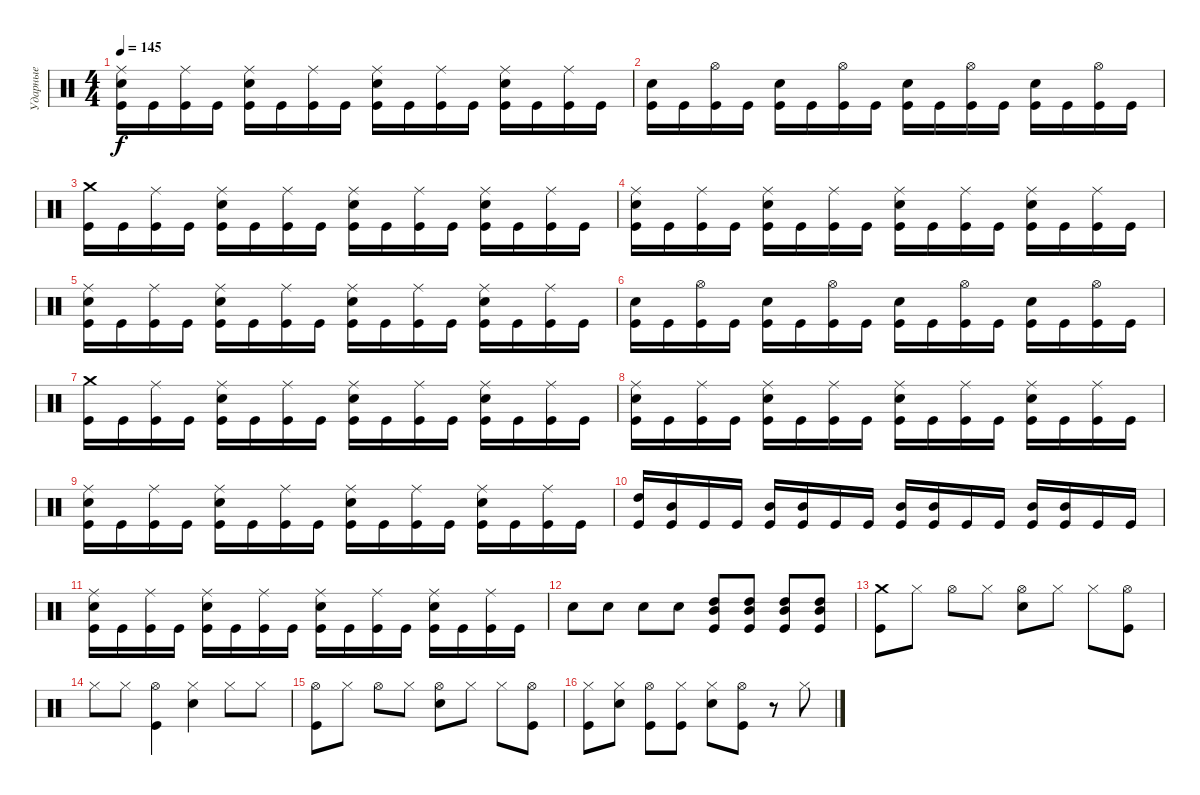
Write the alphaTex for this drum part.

\track ("Ударные" "Ударные") {instrument percussion}
\staff {score}
\articulation defaults
\ts (4 4)
\tempo 145
\clef neutral
\ks c
("Kick (hit)" "Snare (hit) 2" "Ride (middle)").16{dy f} "Kick (hit)".16 ("Kick (hit)" "Ride (middle)").16 "Kick (hit)".16 ("Kick (hit)" "Snare (hit) 2" "Ride (middle)").16 "Kick (hit)".16 ("Kick (hit)" "Ride (middle)").16 "Kick (hit)".16 ("Kick (hit)" "Snare (hit) 2" "Ride (middle)").16 "Kick (hit)".16 ("Kick (hit)" "Ride (middle)").16 "Kick (hit)".16 ("Kick (hit)" "Snare (hit) 2" "Ride (middle)").16 "Kick (hit)".16 ("Kick (hit)" "Ride (middle)").16 "Kick (hit)".16 |
("Kick (hit)" "Snare (hit) 2").16 "Kick (hit)".16 ("Kick (hit)" "Hi-Hat (open)").16 "Kick (hit)".16 ("Kick (hit)" "Snare (hit) 2").16 "Kick (hit)".16 ("Kick (hit)" "Hi-Hat (open)").16 "Kick (hit)".16 ("Kick (hit)" "Snare (hit) 2").16 "Kick (hit)".16 ("Kick (hit)" "Hi-Hat (open)").16 "Kick (hit)".16 ("Kick (hit)" "Snare (hit) 2").16 "Kick (hit)".16 ("Kick (hit)" "Hi-Hat (open)").16 "Kick (hit)".16 |
("Kick (hit)" "Crash medium (hit)").16 "Kick (hit)".16 ("Kick (hit)" "Ride (middle)").16 "Kick (hit)".16 ("Kick (hit)" "Snare (hit) 2" "Ride (middle)").16 "Kick (hit)".16 ("Kick (hit)" "Ride (middle)").16 "Kick (hit)".16 ("Kick (hit)" "Snare (hit) 2" "Ride (middle)").16 "Kick (hit)".16 ("Kick (hit)" "Ride (middle)").16 "Kick (hit)".16 ("Kick (hit)" "Snare (hit) 2" "Ride (middle)").16 "Kick (hit)".16 ("Kick (hit)" "Ride (middle)").16 "Kick (hit)".16 |
("Kick (hit)" "Snare (hit) 2" "Ride (middle)").16 "Kick (hit)".16 ("Kick (hit)" "Ride (middle)").16 "Kick (hit)".16 ("Kick (hit)" "Snare (hit) 2" "Ride (middle)").16 "Kick (hit)".16 ("Kick (hit)" "Ride (middle)").16 "Kick (hit)".16 ("Kick (hit)" "Snare (hit) 2" "Ride (middle)").16 "Kick (hit)".16 ("Kick (hit)" "Ride (middle)").16 "Kick (hit)".16 ("Kick (hit)" "Snare (hit) 2" "Ride (middle)").16 "Kick (hit)".16 ("Kick (hit)" "Ride (middle)").16 "Kick (hit)".16 |
("Kick (hit)" "Snare (hit) 2" "Ride (middle)").16 "Kick (hit)".16 ("Kick (hit)" "Ride (middle)").16 "Kick (hit)".16 ("Kick (hit)" "Snare (hit) 2" "Ride (middle)").16 "Kick (hit)".16 ("Kick (hit)" "Ride (middle)").16 "Kick (hit)".16 ("Kick (hit)" "Snare (hit) 2" "Ride (middle)").16 "Kick (hit)".16 ("Kick (hit)" "Ride (middle)").16 "Kick (hit)".16 ("Kick (hit)" "Snare (hit) 2" "Ride (middle)").16 "Kick (hit)".16 ("Kick (hit)" "Ride (middle)").16 "Kick (hit)".16 |
("Kick (hit)" "Snare (hit) 2").16 "Kick (hit)".16 ("Kick (hit)" "Hi-Hat (open)").16 "Kick (hit)".16 ("Kick (hit)" "Snare (hit) 2").16 "Kick (hit)".16 ("Kick (hit)" "Hi-Hat (open)").16 "Kick (hit)".16 ("Kick (hit)" "Snare (hit) 2").16 "Kick (hit)".16 ("Kick (hit)" "Hi-Hat (open)").16 "Kick (hit)".16 ("Kick (hit)" "Snare (hit) 2").16 "Kick (hit)".16 ("Kick (hit)" "Hi-Hat (open)").16 "Kick (hit)".16 |
("Kick (hit)" "Crash medium (hit)").16 "Kick (hit)".16 ("Kick (hit)" "Ride (middle)").16 "Kick (hit)".16 ("Kick (hit)" "Snare (hit) 2" "Ride (middle)").16 "Kick (hit)".16 ("Kick (hit)" "Ride (middle)").16 "Kick (hit)".16 ("Kick (hit)" "Snare (hit) 2" "Ride (middle)").16 "Kick (hit)".16 ("Kick (hit)" "Ride (middle)").16 "Kick (hit)".16 ("Kick (hit)" "Snare (hit) 2" "Ride (middle)").16 "Kick (hit)".16 ("Kick (hit)" "Ride (middle)").16 "Kick (hit)".16 |
("Kick (hit)" "Snare (hit) 2" "Ride (middle)").16 "Kick (hit)".16 ("Kick (hit)" "Ride (middle)").16 "Kick (hit)".16 ("Kick (hit)" "Snare (hit) 2" "Ride (middle)").16 "Kick (hit)".16 ("Kick (hit)" "Ride (middle)").16 "Kick (hit)".16 ("Kick (hit)" "Snare (hit) 2" "Ride (middle)").16 "Kick (hit)".16 ("Kick (hit)" "Ride (middle)").16 "Kick (hit)".16 ("Kick (hit)" "Snare (hit) 2" "Ride (middle)").16 "Kick (hit)".16 ("Kick (hit)" "Ride (middle)").16 "Kick (hit)".16 |
("Kick (hit)" "Snare (hit) 2" "Ride (middle)").16 "Kick (hit)".16 ("Kick (hit)" "Ride (middle)").16 "Kick (hit)".16 ("Kick (hit)" "Snare (hit) 2" "Ride (middle)").16 "Kick (hit)".16 ("Kick (hit)" "Ride (middle)").16 "Kick (hit)".16 ("Kick (hit)" "Snare (hit) 2" "Ride (middle)").16 "Kick (hit)".16 ("Kick (hit)" "Ride (middle)").16 "Kick (hit)".16 ("Kick (hit)" "Snare (hit) 2" "Ride (middle)").16 "Kick (hit)".16 ("Kick (hit)" "Ride (middle)").16 "Kick (hit)".16 |
("Kick (hit)" "High Tom (hit)").16 ("Kick (hit)" "Mid Tom (hit)").16 "Kick (hit)".16 "Kick (hit)".16 ("Kick (hit)" "Mid Tom (hit)").16 ("Kick (hit)" "Mid Tom (hit)").16 "Kick (hit)".16 "Kick (hit)".16 ("Kick (hit)" "Mid Tom (hit)").16 ("Kick (hit)" "Mid Tom (hit)").16 "Kick (hit)".16 "Kick (hit)".16 ("Kick (hit)" "Mid Tom (hit)").16 ("Kick (hit)" "Mid Tom (hit)").16 "Kick (hit)".16 "Kick (hit)".16 |
("Kick (hit)" "Snare (hit) 2" "Ride (middle)").16 "Kick (hit)".16 ("Kick (hit)" "Ride (middle)").16 "Kick (hit)".16 ("Kick (hit)" "Snare (hit) 2" "Ride (middle)").16 "Kick (hit)".16 ("Kick (hit)" "Ride (middle)").16 "Kick (hit)".16 ("Kick (hit)" "Snare (hit) 2" "Ride (middle)").16 "Kick (hit)".16 ("Kick (hit)" "Ride (middle)").16 "Kick (hit)".16 ("Kick (hit)" "Snare (hit) 2" "Ride (middle)").16 "Kick (hit)".16 ("Kick (hit)" "Ride (middle)").16 "Kick (hit)".16 |
"Snare (hit) 2".8 "Snare (hit) 2".8 "Snare (hit) 2".8 "Snare (hit) 2".8 ("Kick (hit)" "Mid Tom (hit)" "High Tom (hit)").8 ("Kick (hit)" "Mid Tom (hit)" "High Tom (hit)").8 ("Kick (hit)" "Mid Tom (hit)" "High Tom (hit)").8 ("Kick (hit)" "Mid Tom (hit)" "High Tom (hit)").8 |
("Kick (hit)" "Crash medium (hit)").8 "Hi-Hat (closed)".8 "Hi-Hat (open)".8 "Hi-Hat (closed)".8 ("Snare (hit) 2" "Hi-Hat (open)").8 "Hi-Hat (closed)".8 "Hi-Hat (closed)".8 ("Kick (hit)" "Hi-Hat (open)").8 |
"Hi-Hat (closed)".8 "Hi-Hat (closed)".8 ("Kick (hit)" "Hi-Hat (open)").4 ("Snare (hit) 2" "Hi-Hat (closed)").4 "Hi-Hat (closed)".8 "Hi-Hat (closed)".8 |
("Kick (hit)" "Hi-Hat (open)").8 "Hi-Hat (closed)".8 "Hi-Hat (open)".8 "Hi-Hat (closed)".8 ("Snare (hit) 2" "Hi-Hat (open)").8 "Hi-Hat (closed)".8 "Hi-Hat (closed)".8 ("Kick (hit)" "Hi-Hat (open)").8 |
("Kick (hit)" "Hi-Hat (closed)").8 ("Snare (hit) 2" "Hi-Hat (closed)").8 ("Kick (hit)" "Hi-Hat (open)").8 ("Kick (hit)" "Hi-Hat (closed)").8 ("Snare (hit) 2" "Hi-Hat (closed)").8 ("Kick (hit)" "Hi-Hat (open)").8 r.8 "Hi-Hat (closed)".8
